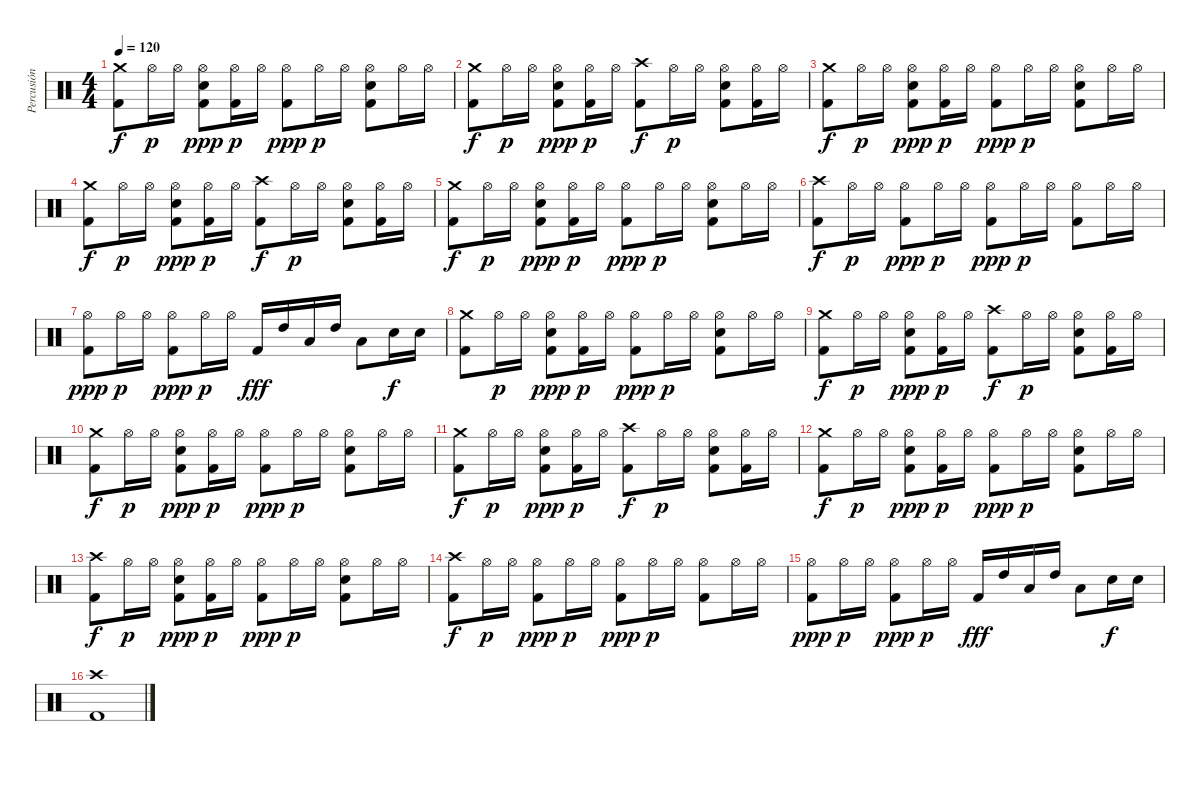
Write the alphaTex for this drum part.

\track ("Percusión" "Percusión") {instrument percussion}
\staff {score}
\articulation defaults
\ts (4 4)
\tempo 120
\clef neutral
\ks c
("Crash medium (hit)" "Kick (hit) 2").8{dy f} "Hi-Hat (open)".16{dy p} "Hi-Hat (open)".16 ("Hi-Hat (open)" "Kick (hit) 2" "Snare (hit) 2").8{dy ppp} ("Hi-Hat (open)" "Kick (hit) 2").16{dy p} "Hi-Hat (open)".16 ("Hi-Hat (open)" "Kick (hit) 2").8{dy ppp} "Hi-Hat (open)".16{dy p} "Hi-Hat (open)".16 ("Hi-Hat (open)" "Kick (hit) 2" "Snare (hit) 2").8 "Hi-Hat (open)".16 "Hi-Hat (open)".16 |
("Crash medium (hit)" "Kick (hit) 2").8{dy f} "Hi-Hat (open)".16{dy p} "Hi-Hat (open)".16 ("Hi-Hat (open)" "Kick (hit) 2" "Snare (hit) 2").8{dy ppp} ("Hi-Hat (open)" "Kick (hit) 2").16{dy p} "Hi-Hat (open)".16 ("Crash high (hit)" "Kick (hit) 2").8{dy f} "Hi-Hat (open)".16{dy p} "Hi-Hat (open)".16 ("Hi-Hat (open)" "Kick (hit) 2" "Snare (hit) 2").8 ("Hi-Hat (open)" "Kick (hit) 2").16 "Hi-Hat (open)".16 |
("Crash medium (hit)" "Kick (hit) 2").8{dy f} "Hi-Hat (open)".16{dy p} "Hi-Hat (open)".16 ("Hi-Hat (open)" "Kick (hit) 2" "Snare (hit) 2").8{dy ppp} ("Hi-Hat (open)" "Kick (hit) 2").16{dy p} "Hi-Hat (open)".16 ("Hi-Hat (open)" "Kick (hit) 2").8{dy ppp} "Hi-Hat (open)".16{dy p} "Hi-Hat (open)".16 ("Hi-Hat (open)" "Kick (hit) 2" "Snare (hit) 2").8 "Hi-Hat (open)".16 "Hi-Hat (open)".16 |
("Crash medium (hit)" "Kick (hit) 2").8{dy f} "Hi-Hat (open)".16{dy p} "Hi-Hat (open)".16 ("Hi-Hat (open)" "Kick (hit) 2" "Snare (hit) 2").8{dy ppp} ("Hi-Hat (open)" "Kick (hit) 2").16{dy p} "Hi-Hat (open)".16 ("Crash high (hit)" "Kick (hit) 2").8{dy f} "Hi-Hat (open)".16{dy p} "Hi-Hat (open)".16 ("Hi-Hat (open)" "Kick (hit) 2" "Snare (hit) 2").8 ("Hi-Hat (open)" "Kick (hit) 2").16 "Hi-Hat (open)".16 |
("Crash medium (hit)" "Kick (hit) 2").8{dy f} "Hi-Hat (open)".16{dy p} "Hi-Hat (open)".16 ("Hi-Hat (open)" "Kick (hit) 2" "Snare (hit) 2").8{dy ppp} ("Hi-Hat (open)" "Kick (hit) 2").16{dy p} "Hi-Hat (open)".16 ("Hi-Hat (open)" "Kick (hit) 2").8{dy ppp} "Hi-Hat (open)".16{dy p} "Hi-Hat (open)".16 ("Hi-Hat (open)" "Kick (hit) 2" "Snare (hit) 2").8 "Hi-Hat (open)".16 "Hi-Hat (open)".16 |
("Crash high (hit)" "Kick (hit) 2").8{dy f} "Hi-Hat (open)".16{dy p} "Hi-Hat (open)".16 ("Hi-Hat (open)" "Kick (hit) 2").8{dy ppp} "Hi-Hat (open)".16{dy p} "Hi-Hat (open)".16 ("Hi-Hat (open)" "Kick (hit) 2").8{dy ppp} "Hi-Hat (open)".16{dy p} "Hi-Hat (open)".16 ("Hi-Hat (open)" "Kick (hit) 2").8 "Hi-Hat (open)".16 "Hi-Hat (open)".16 |
("Hi-Hat (open)" "Kick (hit) 2").8{dy ppp} "Hi-Hat (open)".16{dy p} "Hi-Hat (open)".16 ("Hi-Hat (open)" "Kick (hit) 2").8{dy ppp} "Hi-Hat (open)".16{dy p} "Hi-Hat (open)".16 "Kick (hit) 2".16{dy fff} "High Tom (hit)".16 "Low Tom (hit)".16 "High Tom (hit)".16 "Low Tom (hit)".8 "Snare (hit) 2".16{dy f} "Snare (hit) 2".16 |
("Crash medium (hit)" "Kick (hit) 2").8 "Hi-Hat (open)".16{dy p} "Hi-Hat (open)".16 ("Hi-Hat (open)" "Kick (hit) 2" "Snare (hit) 2").8{dy ppp} ("Hi-Hat (open)" "Kick (hit) 2").16{dy p} "Hi-Hat (open)".16 ("Hi-Hat (open)" "Kick (hit) 2").8{dy ppp} "Hi-Hat (open)".16{dy p} "Hi-Hat (open)".16 ("Hi-Hat (open)" "Kick (hit) 2" "Snare (hit) 2").8 "Hi-Hat (open)".16 "Hi-Hat (open)".16 |
("Crash medium (hit)" "Kick (hit) 2").8{dy f} "Hi-Hat (open)".16{dy p} "Hi-Hat (open)".16 ("Hi-Hat (open)" "Kick (hit) 2" "Snare (hit) 2").8{dy ppp} ("Hi-Hat (open)" "Kick (hit) 2").16{dy p} "Hi-Hat (open)".16 ("Crash high (hit)" "Kick (hit) 2").8{dy f} "Hi-Hat (open)".16{dy p} "Hi-Hat (open)".16 ("Hi-Hat (open)" "Kick (hit) 2" "Snare (hit) 2").8 ("Hi-Hat (open)" "Kick (hit) 2").16 "Hi-Hat (open)".16 |
("Crash medium (hit)" "Kick (hit) 2").8{dy f} "Hi-Hat (open)".16{dy p} "Hi-Hat (open)".16 ("Hi-Hat (open)" "Kick (hit) 2" "Snare (hit) 2").8{dy ppp} ("Hi-Hat (open)" "Kick (hit) 2").16{dy p} "Hi-Hat (open)".16 ("Hi-Hat (open)" "Kick (hit) 2").8{dy ppp} "Hi-Hat (open)".16{dy p} "Hi-Hat (open)".16 ("Hi-Hat (open)" "Kick (hit) 2" "Snare (hit) 2").8 "Hi-Hat (open)".16 "Hi-Hat (open)".16 |
("Crash medium (hit)" "Kick (hit) 2").8{dy f} "Hi-Hat (open)".16{dy p} "Hi-Hat (open)".16 ("Hi-Hat (open)" "Kick (hit) 2" "Snare (hit) 2").8{dy ppp} ("Hi-Hat (open)" "Kick (hit) 2").16{dy p} "Hi-Hat (open)".16 ("Crash high (hit)" "Kick (hit) 2").8{dy f} "Hi-Hat (open)".16{dy p} "Hi-Hat (open)".16 ("Hi-Hat (open)" "Kick (hit) 2" "Snare (hit) 2").8 ("Hi-Hat (open)" "Kick (hit) 2").16 "Hi-Hat (open)".16 |
("Crash medium (hit)" "Kick (hit) 2").8{dy f} "Hi-Hat (open)".16{dy p} "Hi-Hat (open)".16 ("Hi-Hat (open)" "Kick (hit) 2" "Snare (hit) 2").8{dy ppp} ("Hi-Hat (open)" "Kick (hit) 2").16{dy p} "Hi-Hat (open)".16 ("Hi-Hat (open)" "Kick (hit) 2").8{dy ppp} "Hi-Hat (open)".16{dy p} "Hi-Hat (open)".16 ("Hi-Hat (open)" "Kick (hit) 2" "Snare (hit) 2").8 "Hi-Hat (open)".16 "Hi-Hat (open)".16 |
("Crash high (hit)" "Kick (hit) 2").8{dy f} "Hi-Hat (open)".16{dy p} "Hi-Hat (open)".16 ("Hi-Hat (open)" "Kick (hit) 2" "Snare (hit) 2").8{dy ppp} ("Hi-Hat (open)" "Kick (hit) 2").16{dy p} "Hi-Hat (open)".16 ("Hi-Hat (open)" "Kick (hit) 2").8{dy ppp} "Hi-Hat (open)".16{dy p} "Hi-Hat (open)".16 ("Hi-Hat (open)" "Kick (hit) 2" "Snare (hit) 2").8 "Hi-Hat (open)".16 "Hi-Hat (open)".16 |
("Crash high (hit)" "Kick (hit) 2").8{dy f} "Hi-Hat (open)".16{dy p} "Hi-Hat (open)".16 ("Hi-Hat (open)" "Kick (hit) 2").8{dy ppp} "Hi-Hat (open)".16{dy p} "Hi-Hat (open)".16 ("Hi-Hat (open)" "Kick (hit) 2").8{dy ppp} "Hi-Hat (open)".16{dy p} "Hi-Hat (open)".16 ("Hi-Hat (open)" "Kick (hit) 2").8 "Hi-Hat (open)".16 "Hi-Hat (open)".16 |
("Hi-Hat (open)" "Kick (hit) 2").8{dy ppp} "Hi-Hat (open)".16{dy p} "Hi-Hat (open)".16 ("Hi-Hat (open)" "Kick (hit) 2").8{dy ppp} "Hi-Hat (open)".16{dy p} "Hi-Hat (open)".16 "Kick (hit) 2".16{dy fff} "High Tom (hit)".16 "Low Tom (hit)".16 "High Tom (hit)".16 "Low Tom (hit)".8 "Snare (hit) 2".16{dy f} "Snare (hit) 2".16 |
("Crash high (hit)" "Kick (hit) 2").1
